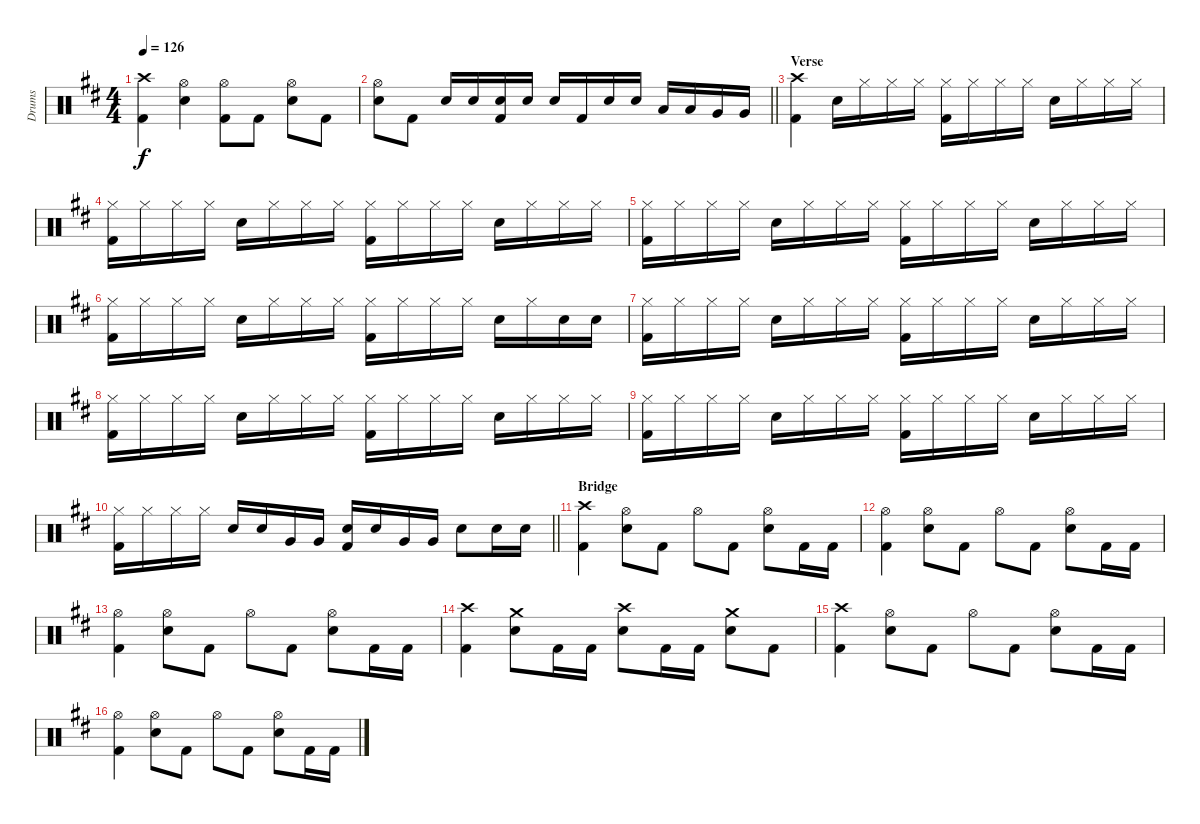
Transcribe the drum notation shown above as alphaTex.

\track ("Drums" "Drums") {instrument percussion}
\staff {score}
\articulation defaults
\ts (4 4)
\tempo 126
\clef neutral
\ks d
("Crash high (hit)" "Kick (hit) 2").4{dy f} ("Hi-Hat (open)" "Electric Snare (hit)").4 ("Hi-Hat (open)" "Kick (hit) 2").8 "Kick (hit) 2".8 ("Hi-Hat (open)" "Electric Snare (hit)").8 "Kick (hit) 2".8 |
\barLineRight lightlight
("Hi-Hat (open)" "Electric Snare (hit)").8 "Kick (hit) 2".8 "Electric Snare (hit)".16 "Electric Snare (hit)".16 ("Electric Snare (hit)" "Kick (hit) 2").16 "Electric Snare (hit)".16 "Electric Snare (hit)".16 "Kick (hit) 2".16 "Electric Snare (hit)".16 "Electric Snare (hit)".16 "Low Tom (hit)".16 "Low Tom (hit)".16 "Very Low Tom (hit)".16 "Very Low Tom (hit)".16 |
\section ("" "Verse")
("Crash high (hit)" "Kick (hit) 2").4 "Electric Snare (hit)".16 "Hi-Hat (closed)".16 "Hi-Hat (closed)".16 "Hi-Hat (closed)".16 ("Hi-Hat (closed)" "Kick (hit) 2").16 "Hi-Hat (closed)".16 "Hi-Hat (closed)".16 "Hi-Hat (closed)".16 "Electric Snare (hit)".16 "Hi-Hat (closed)".16 "Hi-Hat (closed)".16 "Hi-Hat (closed)".16 |
("Hi-Hat (closed)" "Kick (hit) 2").16 "Hi-Hat (closed)".16 "Hi-Hat (closed)".16 "Hi-Hat (closed)".16 "Electric Snare (hit)".16 "Hi-Hat (closed)".16 "Hi-Hat (closed)".16 "Hi-Hat (closed)".16 ("Hi-Hat (closed)" "Kick (hit) 2").16 "Hi-Hat (closed)".16 "Hi-Hat (closed)".16 "Hi-Hat (closed)".16 "Electric Snare (hit)".16 "Hi-Hat (closed)".16 "Hi-Hat (closed)".16 "Hi-Hat (closed)".16 |
("Hi-Hat (closed)" "Kick (hit) 2").16 "Hi-Hat (closed)".16 "Hi-Hat (closed)".16 "Hi-Hat (closed)".16 "Electric Snare (hit)".16 "Hi-Hat (closed)".16 "Hi-Hat (closed)".16 "Hi-Hat (closed)".16 ("Hi-Hat (closed)" "Kick (hit) 2").16 "Hi-Hat (closed)".16 "Hi-Hat (closed)".16 "Hi-Hat (closed)".16 "Electric Snare (hit)".16 "Hi-Hat (closed)".16 "Hi-Hat (closed)".16 "Hi-Hat (closed)".16 |
("Hi-Hat (closed)" "Kick (hit) 2").16 "Hi-Hat (closed)".16 "Hi-Hat (closed)".16 "Hi-Hat (closed)".16 "Electric Snare (hit)".16 "Hi-Hat (closed)".16 "Hi-Hat (closed)".16 "Hi-Hat (closed)".16 ("Hi-Hat (closed)" "Kick (hit) 2").16 "Hi-Hat (closed)".16 "Hi-Hat (closed)".16 "Hi-Hat (closed)".16 "Electric Snare (hit)".16 "Hi-Hat (closed)".16 "Electric Snare (hit)".16 "Electric Snare (hit)".16 |
("Hi-Hat (closed)" "Kick (hit) 2").16 "Hi-Hat (closed)".16 "Hi-Hat (closed)".16 "Hi-Hat (closed)".16 "Electric Snare (hit)".16 "Hi-Hat (closed)".16 "Hi-Hat (closed)".16 "Hi-Hat (closed)".16 ("Hi-Hat (closed)" "Kick (hit) 2").16 "Hi-Hat (closed)".16 "Hi-Hat (closed)".16 "Hi-Hat (closed)".16 "Electric Snare (hit)".16 "Hi-Hat (closed)".16 "Hi-Hat (closed)".16 "Hi-Hat (closed)".16 |
("Hi-Hat (closed)" "Kick (hit) 2").16 "Hi-Hat (closed)".16 "Hi-Hat (closed)".16 "Hi-Hat (closed)".16 "Electric Snare (hit)".16 "Hi-Hat (closed)".16 "Hi-Hat (closed)".16 "Hi-Hat (closed)".16 ("Hi-Hat (closed)" "Kick (hit) 2").16 "Hi-Hat (closed)".16 "Hi-Hat (closed)".16 "Hi-Hat (closed)".16 "Electric Snare (hit)".16 "Hi-Hat (closed)".16 "Hi-Hat (closed)".16 "Hi-Hat (closed)".16 |
("Hi-Hat (closed)" "Kick (hit) 2").16 "Hi-Hat (closed)".16 "Hi-Hat (closed)".16 "Hi-Hat (closed)".16 "Electric Snare (hit)".16 "Hi-Hat (closed)".16 "Hi-Hat (closed)".16 "Hi-Hat (closed)".16 ("Hi-Hat (closed)" "Kick (hit) 2").16 "Hi-Hat (closed)".16 "Hi-Hat (closed)".16 "Hi-Hat (closed)".16 "Electric Snare (hit)".16 "Hi-Hat (closed)".16 "Hi-Hat (closed)".16 "Hi-Hat (closed)".16 |
\barLineRight lightlight
("Hi-Hat (closed)" "Kick (hit) 2").16 "Hi-Hat (closed)".16 "Hi-Hat (closed)".16 "Hi-Hat (closed)".16 "Electric Snare (hit)".16 "Electric Snare (hit)".16 "Very Low Tom (hit)".16 "Very Low Tom (hit)".16 ("Electric Snare (hit)" "Kick (hit) 2").16 "Electric Snare (hit)".16 "Very Low Tom (hit)".16 "Very Low Tom (hit)".16 "Electric Snare (hit)".8 "Electric Snare (hit)".16 "Electric Snare (hit)".16 |
\section ("" "Bridge")
("Crash high (hit)" "Kick (hit) 2").4 ("Hi-Hat (open)" "Electric Snare (hit)").8 "Kick (hit) 2".8 "Hi-Hat (open)".8 "Kick (hit) 2".8 ("Hi-Hat (open)" "Electric Snare (hit)").8 "Kick (hit) 2".16 "Kick (hit) 2".16 |
("Hi-Hat (open)" "Kick (hit) 2").4 ("Hi-Hat (open)" "Electric Snare (hit)").8 "Kick (hit) 2".8 "Hi-Hat (open)".8 "Kick (hit) 2".8 ("Hi-Hat (open)" "Electric Snare (hit)").8 "Kick (hit) 2".16 "Kick (hit) 2".16 |
("Hi-Hat (open)" "Kick (hit) 2").4 ("Hi-Hat (open)" "Electric Snare (hit)").8 "Kick (hit) 2".8 "Hi-Hat (open)".8 "Kick (hit) 2".8 ("Hi-Hat (open)" "Electric Snare (hit)").8 "Kick (hit) 2".16 "Kick (hit) 2".16 |
("Crash high (hit)" "Kick (hit) 2").4 ("Crash medium (hit)" "Electric Snare (hit)").8 "Kick (hit) 2".16 "Kick (hit) 2".16 ("Crash high (hit)" "Electric Snare (hit)").8 "Kick (hit) 2".16 "Kick (hit) 2".16 ("Crash medium (hit)" "Electric Snare (hit)").8 "Kick (hit) 2".8 |
("Crash high (hit)" "Kick (hit) 2").4 ("Hi-Hat (open)" "Electric Snare (hit)").8 "Kick (hit) 2".8 "Hi-Hat (open)".8 "Kick (hit) 2".8 ("Hi-Hat (open)" "Electric Snare (hit)").8 "Kick (hit) 2".16 "Kick (hit) 2".16 |
("Hi-Hat (open)" "Kick (hit) 2").4 ("Hi-Hat (open)" "Electric Snare (hit)").8 "Kick (hit) 2".8 "Hi-Hat (open)".8 "Kick (hit) 2".8 ("Hi-Hat (open)" "Electric Snare (hit)").8 "Kick (hit) 2".16 "Kick (hit) 2".16
